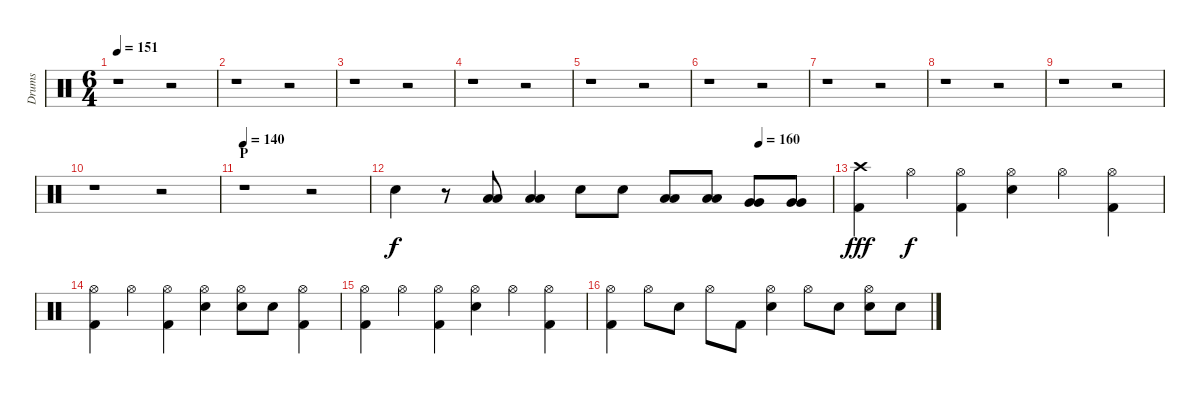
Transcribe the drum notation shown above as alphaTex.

\track ("Drums" "Drums") {instrument percussion}
\staff {score}
\articulation defaults
\ts (6 4)
\tempo 151
\clef neutral
\ks c
r.1{dy f} r.2 |
r.1 r.2 |
r.1 r.2 |
r.1 r.2 |
r.1 r.2 |
r.1 r.2 |
r.1 r.2 |
r.1 r.2 |
r.1 r.2 |
r.1 r.2 |
\section ("" "P")
\tempo 140
r.1 r.2 |
\tempo (160 0.8333333333333334)
"Electric Snare (hit)".4 r.8 ("Low Tom (hit)" "Low Tom (hit)").8 ("Low Tom (hit)" "Low Tom (hit)").4 "Electric Snare (hit)".8 "Electric Snare (hit)".8 ("Low Tom (hit)" "Low Tom (hit)").8 ("Low Tom (hit)" "Low Tom (hit)").8 ("Very Low Tom (hit)" "Very Low Tom (hit)").8 ("Very Low Tom (hit)" "Very Low Tom (hit)").8 |
("Kick (hit) 2" "Crash high (hit)").4{dy fff} "Hi-Hat (open)".4{dy f} ("Kick (hit) 2" "Hi-Hat (open)").4 ("Electric Snare (hit)" "Hi-Hat (open)").4 "Hi-Hat (open)".4 ("Kick (hit) 2" "Hi-Hat (open)").4 |
("Kick (hit) 2" "Hi-Hat (open)").4 "Hi-Hat (open)".4 ("Kick (hit) 2" "Hi-Hat (open)").4 ("Electric Snare (hit)" "Hi-Hat (open)").4 ("Electric Snare (hit)" "Hi-Hat (open)").8 "Electric Snare (hit)".8 ("Kick (hit) 2" "Hi-Hat (open)").4 |
("Kick (hit) 2" "Hi-Hat (open)").4 "Hi-Hat (open)".4 ("Kick (hit) 2" "Hi-Hat (open)").4 ("Electric Snare (hit)" "Hi-Hat (open)").4 "Hi-Hat (open)".4 ("Kick (hit) 2" "Hi-Hat (open)").4 |
("Kick (hit) 2" "Hi-Hat (open)").4 "Hi-Hat (open)".8 "Electric Snare (hit)".8 "Hi-Hat (open)".8 "Kick (hit) 2".8 ("Electric Snare (hit)" "Hi-Hat (open)").4 "Hi-Hat (open)".8 "Electric Snare (hit)".8 ("Electric Snare (hit)" "Hi-Hat (open)").8 "Electric Snare (hit)".8
